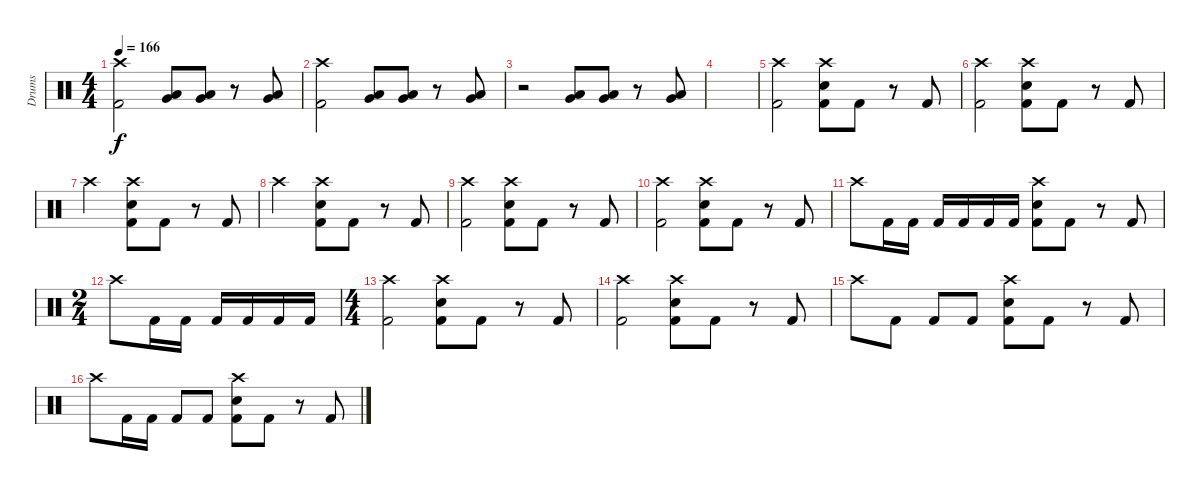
\track ("Drums" "Drums") {instrument percussion}
\staff {score}
\articulation defaults
\ts (4 4)
\tempo 166
\clef neutral
\ks c
("Crash high (hit)" "Kick (hit) 2").2{dy f} ("Low Tom (hit)" "Very Low Tom (hit)").8 ("Low Tom (hit)" "Very Low Tom (hit)").8 r.8 ("Low Tom (hit)" "Very Low Tom (hit)").8 |
("Crash high (hit)" "Kick (hit) 2").2 ("Low Tom (hit)" "Very Low Tom (hit)").8 ("Low Tom (hit)" "Very Low Tom (hit)").8 r.8 ("Low Tom (hit)" "Very Low Tom (hit)").8 |
r.2 ("Low Tom (hit)" "Very Low Tom (hit)").8 ("Low Tom (hit)" "Very Low Tom (hit)").8 r.8 ("Low Tom (hit)" "Very Low Tom (hit)").8 |
|
("Crash high (hit)" "Kick (hit) 2").2 ("Crash high (hit)" "Snare (hit) 2" "Kick (hit) 2").8 "Kick (hit) 2".8 r.8 "Kick (hit) 2".8 |
("Crash high (hit)" "Kick (hit) 2").2 ("Crash high (hit)" "Snare (hit) 2" "Kick (hit) 2").8 "Kick (hit) 2".8 r.8 "Kick (hit) 2".8 |
"Crash high (hit)".2 ("Crash high (hit)" "Snare (hit) 2" "Kick (hit) 2").8 "Kick (hit) 2".8 r.8 "Kick (hit) 2".8 |
"Crash high (hit)".2 ("Crash high (hit)" "Snare (hit) 2" "Kick (hit) 2").8 "Kick (hit) 2".8 r.8 "Kick (hit) 2".8 |
("Crash high (hit)" "Kick (hit) 2").2 ("Crash high (hit)" "Snare (hit) 2" "Kick (hit) 2").8 "Kick (hit) 2".8 r.8 "Kick (hit) 2".8 |
("Crash high (hit)" "Kick (hit) 2").2 ("Crash high (hit)" "Snare (hit) 2" "Kick (hit) 2").8 "Kick (hit) 2".8 r.8 "Kick (hit) 2".8 |
"Crash high (hit)".8 "Kick (hit) 2".16 "Kick (hit) 2".16 "Kick (hit) 2".16 "Kick (hit) 2".16 "Kick (hit) 2".16 "Kick (hit) 2".16 ("Crash high (hit)" "Snare (hit) 2" "Kick (hit) 2").8 "Kick (hit) 2".8 r.8 "Kick (hit) 2".8 |
\ts (2 4)
"Crash high (hit)".8 "Kick (hit) 2".16 "Kick (hit) 2".16 "Kick (hit) 2".16 "Kick (hit) 2".16 "Kick (hit) 2".16 "Kick (hit) 2".16 |
\ts (4 4)
("Crash high (hit)" "Kick (hit) 2").2 ("Crash high (hit)" "Electric Snare (hit)" "Kick (hit) 2").8 "Kick (hit) 2".8 r.8 "Kick (hit) 2".8 |
("Crash high (hit)" "Kick (hit) 2").2 ("Crash high (hit)" "Electric Snare (hit)" "Kick (hit) 2").8 "Kick (hit) 2".8 r.8 "Kick (hit) 2".8 |
"Crash high (hit)".8 "Kick (hit) 2".8 "Kick (hit) 2".8 "Kick (hit) 2".8 ("Crash high (hit)" "Electric Snare (hit)" "Kick (hit) 2").8 "Kick (hit) 2".8 r.8 "Kick (hit) 2".8 |
"Crash high (hit)".8 "Kick (hit) 2".16 "Kick (hit) 2".16 "Kick (hit) 2".8 "Kick (hit) 2".8 ("Crash high (hit)" "Electric Snare (hit)" "Kick (hit) 2").8 "Kick (hit) 2".8 r.8 "Kick (hit) 2".8
